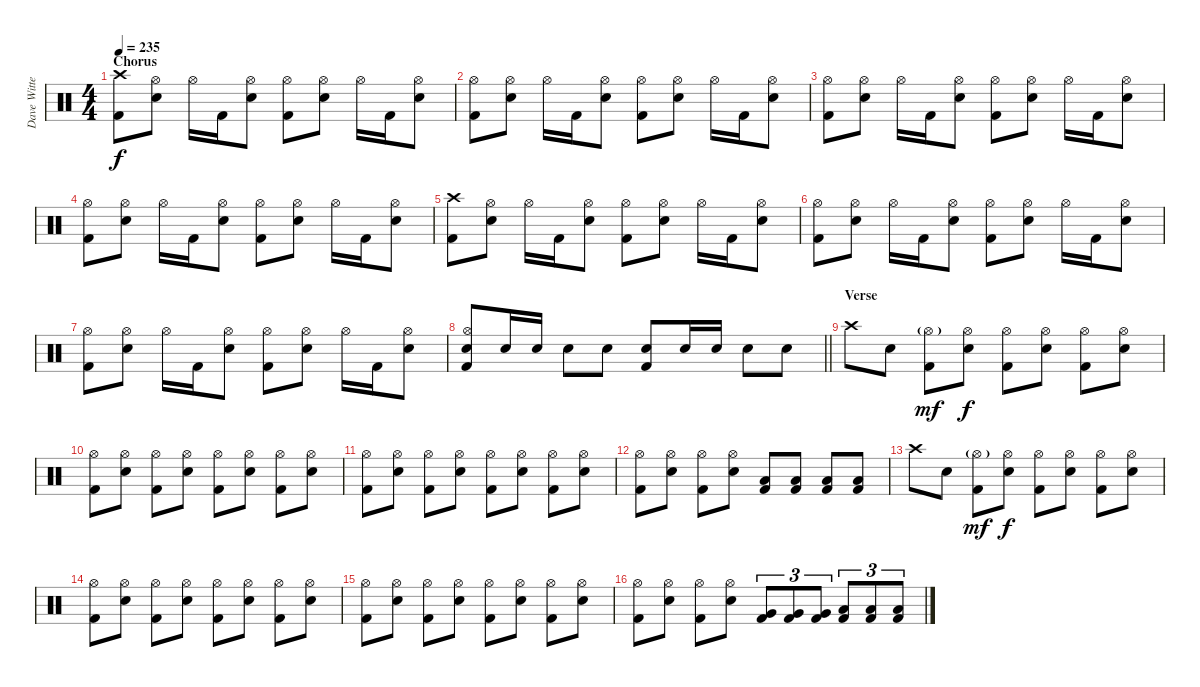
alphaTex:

\track ("Dave Witte" "Dave Witte") {instrument percussion}
\staff {score}
\articulation defaults
\ts (4 4)
\section ("" "Chorus")
\tempo 235
\clef neutral
\ks c
("Crash high (hit)" "Kick (hit) 2").8{dy f} ("Hi-Hat (open)" "Electric Snare (hit)").8 "Hi-Hat (open)".16 "Kick (hit) 2".16 ("Hi-Hat (open)" "Electric Snare (hit)").8 ("Hi-Hat (open)" "Kick (hit) 2").8 ("Hi-Hat (open)" "Electric Snare (hit)").8 "Hi-Hat (open)".16 "Kick (hit) 2".16 ("Hi-Hat (open)" "Electric Snare (hit)").8 |
("Hi-Hat (open)" "Kick (hit) 2").8 ("Hi-Hat (open)" "Electric Snare (hit)").8 "Hi-Hat (open)".16 "Kick (hit) 2".16 ("Hi-Hat (open)" "Electric Snare (hit)").8 ("Hi-Hat (open)" "Kick (hit) 2").8 ("Hi-Hat (open)" "Electric Snare (hit)").8 "Hi-Hat (open)".16 "Kick (hit) 2".16 ("Hi-Hat (open)" "Electric Snare (hit)").8 |
("Hi-Hat (open)" "Kick (hit) 2").8 ("Hi-Hat (open)" "Electric Snare (hit)").8 "Hi-Hat (open)".16 "Kick (hit) 2".16 ("Hi-Hat (open)" "Electric Snare (hit)").8 ("Hi-Hat (open)" "Kick (hit) 2").8 ("Hi-Hat (open)" "Electric Snare (hit)").8 "Hi-Hat (open)".16 "Kick (hit) 2".16 ("Hi-Hat (open)" "Electric Snare (hit)").8 |
("Hi-Hat (open)" "Kick (hit) 2").8 ("Hi-Hat (open)" "Electric Snare (hit)").8 "Hi-Hat (open)".16 "Kick (hit) 2".16 ("Hi-Hat (open)" "Electric Snare (hit)").8 ("Hi-Hat (open)" "Kick (hit) 2").8 ("Hi-Hat (open)" "Electric Snare (hit)").8 "Hi-Hat (open)".16 "Kick (hit) 2".16 ("Hi-Hat (open)" "Electric Snare (hit)").8 |
("Crash high (hit)" "Kick (hit) 2").8 ("Hi-Hat (open)" "Electric Snare (hit)").8 "Hi-Hat (open)".16 "Kick (hit) 2".16 ("Hi-Hat (open)" "Electric Snare (hit)").8 ("Hi-Hat (open)" "Kick (hit) 2").8 ("Hi-Hat (open)" "Electric Snare (hit)").8 "Hi-Hat (open)".16 "Kick (hit) 2".16 ("Hi-Hat (open)" "Electric Snare (hit)").8 |
("Hi-Hat (open)" "Kick (hit) 2").8 ("Hi-Hat (open)" "Electric Snare (hit)").8 "Hi-Hat (open)".16 "Kick (hit) 2".16 ("Hi-Hat (open)" "Electric Snare (hit)").8 ("Hi-Hat (open)" "Kick (hit) 2").8 ("Hi-Hat (open)" "Electric Snare (hit)").8 "Hi-Hat (open)".16 "Kick (hit) 2".16 ("Hi-Hat (open)" "Electric Snare (hit)").8 |
("Hi-Hat (open)" "Kick (hit) 2").8 ("Hi-Hat (open)" "Electric Snare (hit)").8 "Hi-Hat (open)".16 "Kick (hit) 2".16 ("Hi-Hat (open)" "Electric Snare (hit)").8 ("Hi-Hat (open)" "Kick (hit) 2").8 ("Hi-Hat (open)" "Electric Snare (hit)").8 "Hi-Hat (open)".16 "Kick (hit) 2".16 ("Hi-Hat (open)" "Electric Snare (hit)").8 |
\barLineRight lightlight
("Hi-Hat (open)" "Electric Snare (hit)" "Kick (hit) 2").8 "Electric Snare (hit)".16 "Electric Snare (hit)".16 "Electric Snare (hit)".8 "Electric Snare (hit)".8 ("Electric Snare (hit)" "Kick (hit) 2").8 "Electric Snare (hit)".16 "Electric Snare (hit)".16 "Electric Snare (hit)".8 "Electric Snare (hit)".8 |
\section ("" "Verse")
"Crash high (hit)".8 "Electric Snare (hit)".8 ("Hi-Hat (open)"{g} "Kick (hit) 2").8{dy mf} ("Hi-Hat (open)" "Electric Snare (hit)").8{dy f} ("Hi-Hat (open)" "Kick (hit) 2").8 ("Hi-Hat (open)" "Electric Snare (hit)").8 ("Hi-Hat (open)" "Kick (hit) 2").8 ("Hi-Hat (open)" "Electric Snare (hit)").8 |
("Hi-Hat (open)" "Kick (hit) 2").8 ("Hi-Hat (open)" "Electric Snare (hit)").8 ("Hi-Hat (open)" "Kick (hit) 2").8 ("Hi-Hat (open)" "Electric Snare (hit)").8 ("Hi-Hat (open)" "Kick (hit) 2").8 ("Hi-Hat (open)" "Electric Snare (hit)").8 ("Hi-Hat (open)" "Kick (hit) 2").8 ("Hi-Hat (open)" "Electric Snare (hit)").8 |
("Hi-Hat (open)" "Kick (hit) 2").8 ("Hi-Hat (open)" "Electric Snare (hit)").8 ("Hi-Hat (open)" "Kick (hit) 2").8 ("Hi-Hat (open)" "Electric Snare (hit)").8 ("Hi-Hat (open)" "Kick (hit) 2").8 ("Hi-Hat (open)" "Electric Snare (hit)").8 ("Hi-Hat (open)" "Kick (hit) 2").8 ("Hi-Hat (open)" "Electric Snare (hit)").8 |
("Hi-Hat (open)" "Kick (hit) 2").8 ("Hi-Hat (open)" "Electric Snare (hit)").8 ("Hi-Hat (open)" "Kick (hit) 2").8 ("Hi-Hat (open)" "Electric Snare (hit)").8 ("Low Floor Tom (hit)" "Kick (hit) 2").8 ("Low Floor Tom (hit)" "Kick (hit) 2").8 ("Low Floor Tom (hit)" "Kick (hit) 2").8 ("Low Floor Tom (hit)" "Kick (hit) 2").8 |
"Crash high (hit)".8 "Electric Snare (hit)".8 ("Hi-Hat (open)"{g} "Kick (hit) 2").8{dy mf} ("Hi-Hat (open)" "Electric Snare (hit)").8{dy f} ("Hi-Hat (open)" "Kick (hit) 2").8 ("Hi-Hat (open)" "Electric Snare (hit)").8 ("Hi-Hat (open)" "Kick (hit) 2").8 ("Hi-Hat (open)" "Electric Snare (hit)").8 |
("Hi-Hat (open)" "Kick (hit) 2").8 ("Hi-Hat (open)" "Electric Snare (hit)").8 ("Hi-Hat (open)" "Kick (hit) 2").8 ("Hi-Hat (open)" "Electric Snare (hit)").8 ("Hi-Hat (open)" "Kick (hit) 2").8 ("Hi-Hat (open)" "Electric Snare (hit)").8 ("Hi-Hat (open)" "Kick (hit) 2").8 ("Hi-Hat (open)" "Electric Snare (hit)").8 |
("Hi-Hat (open)" "Kick (hit) 2").8 ("Hi-Hat (open)" "Electric Snare (hit)").8 ("Hi-Hat (open)" "Kick (hit) 2").8 ("Hi-Hat (open)" "Electric Snare (hit)").8 ("Hi-Hat (open)" "Kick (hit) 2").8 ("Hi-Hat (open)" "Electric Snare (hit)").8 ("Hi-Hat (open)" "Kick (hit) 2").8 ("Hi-Hat (open)" "Electric Snare (hit)").8 |
("Hi-Hat (open)" "Kick (hit) 2").8 ("Hi-Hat (open)" "Electric Snare (hit)").8 ("Hi-Hat (open)" "Kick (hit) 2").8 ("Hi-Hat (open)" "Electric Snare (hit)").8 ("Very Low Tom (hit)" "Kick (hit) 2").8{tu (3 2)} ("Very Low Tom (hit)" "Kick (hit) 2").8{tu (3 2)} ("Very Low Tom (hit)" "Kick (hit) 2").8{tu (3 2)} ("Low Floor Tom (hit)" "Kick (hit) 2").8{tu (3 2)} ("Low Floor Tom (hit)" "Kick (hit) 2").8{tu (3 2)} ("Low Floor Tom (hit)" "Kick (hit) 2").8{tu (3 2)}
